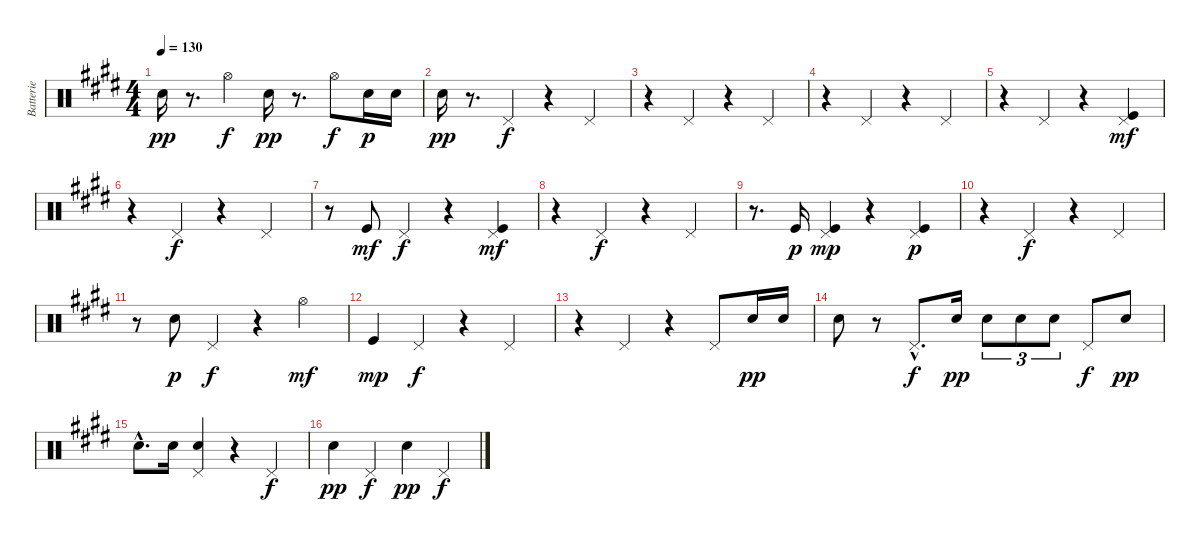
\track ("Batterie" "Batterie") {instrument percussion}
\staff {score}
\articulation defaults
\ts (4 4)
\tempo 130
\clef neutral
\ks e "Snare (hit) 2".16{dy pp}
r.8{d} "Hi-Hat (open)".4{dy f} "Snare (hit) 2".16{dy pp} r.8{d} "Hi-Hat (open)".8{dy f} "Snare (hit) 2".16{dy p} "Snare (hit) 2".16 |
"Snare (hit) 2".16{dy pp} r.8{d} "Pedal Hi-Hat (hit)".4{dy f} r.4 "Pedal Hi-Hat (hit)".4 |
r.4 "Pedal Hi-Hat (hit)".4 r.4 "Pedal Hi-Hat (hit)".4 |
r.4 "Pedal Hi-Hat (hit)".4 r.4 "Pedal Hi-Hat (hit)".4 |
r.4 "Pedal Hi-Hat (hit)".4 r.4 ("Pedal Hi-Hat (hit)" "Kick (hit)").4{dy mf} |
r.4 "Pedal Hi-Hat (hit)".4{dy f} r.4 "Pedal Hi-Hat (hit)".4 |
r.8 "Kick (hit)".8{dy mf} "Pedal Hi-Hat (hit)".4{dy f} r.4 ("Pedal Hi-Hat (hit)" "Kick (hit)").4{dy mf} |
r.4 "Pedal Hi-Hat (hit)".4{dy f} r.4 "Pedal Hi-Hat (hit)".4 |
r.8{d} "Kick (hit)".16{dy p} ("Pedal Hi-Hat (hit)" "Kick (hit)").4{dy mp} r.4 ("Pedal Hi-Hat (hit)" "Kick (hit)").4{dy p} |
r.4 "Pedal Hi-Hat (hit)".4{dy f} r.4 "Pedal Hi-Hat (hit)".4 |
r.8 "Snare (hit) 2".8{dy p} "Pedal Hi-Hat (hit)".4{dy f} r.4 "Hi-Hat (open)".4{dy mf} |
"Kick (hit)".4{dy mp} "Pedal Hi-Hat (hit)".4{dy f} r.4 "Pedal Hi-Hat (hit)".4 |
r.4 "Pedal Hi-Hat (hit)".4 r.4 "Pedal Hi-Hat (hit)".8 "Snare (hit) 2".16{dy pp} "Snare (hit) 2".16 |
"Snare (hit) 2".8 r.8 "Pedal Hi-Hat (hit)"{hac}.8{d dy f} "Snare (hit) 2".16{dy pp} "Snare (hit) 2".8{tu (3 2)} "Snare (hit) 2".8{tu (3 2)} "Snare (hit) 2".8{tu (3 2)} "Pedal Hi-Hat (hit)".8{dy f} "Snare (hit) 2".8{dy pp} |
"Snare (hit) 2"{hac}.8{d} "Snare (hit) 2".16 ("Pedal Hi-Hat (hit)" "Snare (hit) 2").4 r.4 "Pedal Hi-Hat (hit)".4{dy f} |
"Snare (hit) 2".4{dy pp} "Pedal Hi-Hat (hit)".4{dy f} "Snare (hit) 2".4{dy pp} "Pedal Hi-Hat (hit)".4{dy f}
